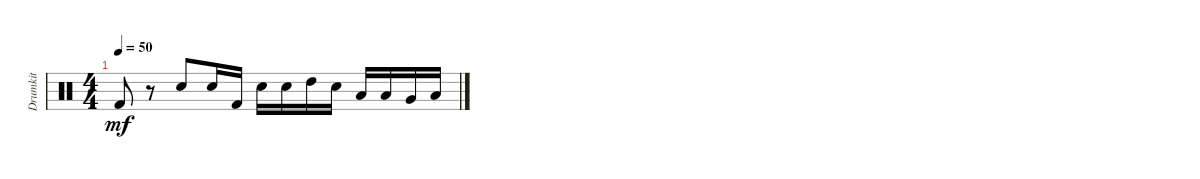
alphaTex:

\track ("Drumkit" "Drumkit") {instrument percussion}
\staff {score}
\articulation defaults
\ts (4 4)
\tempo 50
\clef neutral
\ks c "Kick (hit) 2".8{dy mf}
r.8 "Snare (hit) 2".8 "Snare (hit) 2".16 "Kick (hit) 2".16 "Snare (hit) 2".16 "Snare (hit) 2".16 "High Tom (hit)".16 "Snare (hit) 2".16 "Low Tom (hit)".16 "Low Tom (hit)".16 "Very Low Tom (hit)".16 "Low Floor Tom (hit)".16
